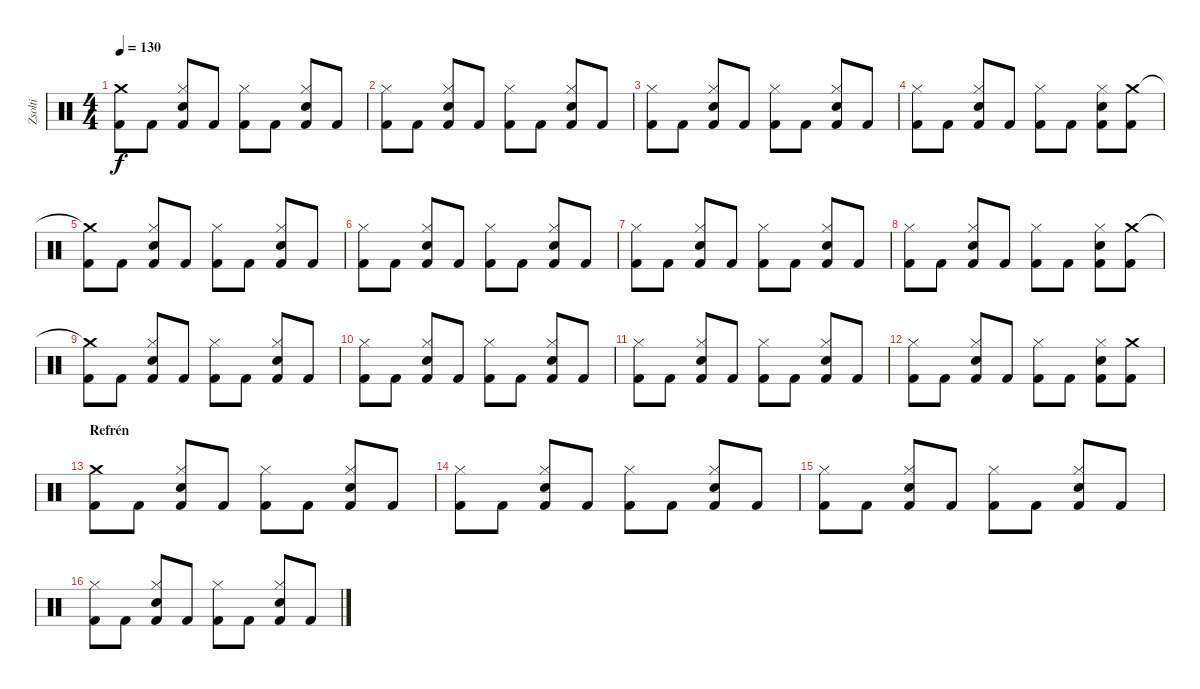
\track ("Zsolti" "Zsolti") {instrument percussion}
\staff {score}
\articulation defaults
\ts (4 4)
\tempo 130
\clef neutral
\ks c
("Crash medium (hit)"{t} "Kick (hit) 2").8{dy f} "Kick (hit) 2".8 ("Hi-Hat (closed)" "Snare (hit) 2" "Kick (hit) 2").8 "Kick (hit) 2".8 ("Hi-Hat (closed)" "Kick (hit) 2").8 "Kick (hit) 2".8 ("Hi-Hat (closed)" "Snare (hit) 2" "Kick (hit) 2").8 "Kick (hit) 2".8 |
("Hi-Hat (closed)" "Kick (hit) 2").8 "Kick (hit) 2".8 ("Hi-Hat (closed)" "Snare (hit) 2" "Kick (hit) 2").8 "Kick (hit) 2".8 ("Hi-Hat (closed)" "Kick (hit) 2").8 "Kick (hit) 2".8 ("Hi-Hat (closed)" "Snare (hit) 2" "Kick (hit) 2").8 "Kick (hit) 2".8 |
("Hi-Hat (closed)" "Kick (hit) 2").8 "Kick (hit) 2".8 ("Hi-Hat (closed)" "Snare (hit) 2" "Kick (hit) 2").8 "Kick (hit) 2".8 ("Hi-Hat (closed)" "Kick (hit) 2").8 "Kick (hit) 2".8 ("Hi-Hat (closed)" "Snare (hit) 2" "Kick (hit) 2").8 "Kick (hit) 2".8 |
("Hi-Hat (closed)" "Kick (hit) 2").8 "Kick (hit) 2".8 ("Hi-Hat (closed)" "Snare (hit) 2" "Kick (hit) 2").8 "Kick (hit) 2".8 ("Hi-Hat (closed)" "Kick (hit) 2").8 "Kick (hit) 2".8 ("Hi-Hat (closed)" "Snare (hit) 2" "Kick (hit) 2").8 ("Crash medium (hit)" "Kick (hit) 2").8 |
("Crash medium (hit)"{t} "Kick (hit) 2").8 "Kick (hit) 2".8 ("Hi-Hat (closed)" "Snare (hit) 2" "Kick (hit) 2").8 "Kick (hit) 2".8 ("Hi-Hat (closed)" "Kick (hit) 2").8 "Kick (hit) 2".8 ("Hi-Hat (closed)" "Snare (hit) 2" "Kick (hit) 2").8 "Kick (hit) 2".8 |
("Hi-Hat (closed)" "Kick (hit) 2").8 "Kick (hit) 2".8 ("Hi-Hat (closed)" "Snare (hit) 2" "Kick (hit) 2").8 "Kick (hit) 2".8 ("Hi-Hat (closed)" "Kick (hit) 2").8 "Kick (hit) 2".8 ("Hi-Hat (closed)" "Snare (hit) 2" "Kick (hit) 2").8 "Kick (hit) 2".8 |
("Hi-Hat (closed)" "Kick (hit) 2").8 "Kick (hit) 2".8 ("Hi-Hat (closed)" "Snare (hit) 2" "Kick (hit) 2").8 "Kick (hit) 2".8 ("Hi-Hat (closed)" "Kick (hit) 2").8 "Kick (hit) 2".8 ("Hi-Hat (closed)" "Snare (hit) 2" "Kick (hit) 2").8 "Kick (hit) 2".8 |
("Hi-Hat (closed)" "Kick (hit) 2").8 "Kick (hit) 2".8 ("Hi-Hat (closed)" "Snare (hit) 2" "Kick (hit) 2").8 "Kick (hit) 2".8 ("Hi-Hat (closed)" "Kick (hit) 2").8 "Kick (hit) 2".8 ("Hi-Hat (closed)" "Snare (hit) 2" "Kick (hit) 2").8 ("Crash medium (hit)" "Kick (hit) 2").8 |
("Crash medium (hit)"{t} "Kick (hit) 2").8 "Kick (hit) 2".8 ("Hi-Hat (closed)" "Snare (hit) 2" "Kick (hit) 2").8 "Kick (hit) 2".8 ("Hi-Hat (closed)" "Kick (hit) 2").8 "Kick (hit) 2".8 ("Hi-Hat (closed)" "Snare (hit) 2" "Kick (hit) 2").8 "Kick (hit) 2".8 |
("Hi-Hat (closed)" "Kick (hit) 2").8 "Kick (hit) 2".8 ("Hi-Hat (closed)" "Snare (hit) 2" "Kick (hit) 2").8 "Kick (hit) 2".8 ("Hi-Hat (closed)" "Kick (hit) 2").8 "Kick (hit) 2".8 ("Hi-Hat (closed)" "Snare (hit) 2" "Kick (hit) 2").8 "Kick (hit) 2".8 |
("Hi-Hat (closed)" "Kick (hit) 2").8 "Kick (hit) 2".8 ("Hi-Hat (closed)" "Snare (hit) 2" "Kick (hit) 2").8 "Kick (hit) 2".8 ("Hi-Hat (closed)" "Kick (hit) 2").8 "Kick (hit) 2".8 ("Hi-Hat (closed)" "Snare (hit) 2" "Kick (hit) 2").8 "Kick (hit) 2".8 |
("Hi-Hat (closed)" "Kick (hit) 2").8 "Kick (hit) 2".8 ("Hi-Hat (closed)" "Snare (hit) 2" "Kick (hit) 2").8 "Kick (hit) 2".8 ("Hi-Hat (closed)" "Kick (hit) 2").8 "Kick (hit) 2".8 ("Hi-Hat (closed)" "Snare (hit) 2" "Kick (hit) 2").8 ("Crash medium (hit)" "Kick (hit) 2").8 |
\section ("" "Refrén")
("Crash medium (hit)" "Kick (hit) 2").8 "Kick (hit) 2".8 ("Hi-Hat (closed)" "Snare (hit) 2" "Kick (hit) 2").8 "Kick (hit) 2".8 ("Hi-Hat (closed)" "Kick (hit) 2").8 "Kick (hit) 2".8 ("Hi-Hat (closed)" "Snare (hit) 2" "Kick (hit) 2").8 "Kick (hit) 2".8 |
("Hi-Hat (closed)" "Kick (hit) 2").8 "Kick (hit) 2".8 ("Hi-Hat (closed)" "Snare (hit) 2" "Kick (hit) 2").8 "Kick (hit) 2".8 ("Hi-Hat (closed)" "Kick (hit) 2").8 "Kick (hit) 2".8 ("Hi-Hat (closed)" "Snare (hit) 2" "Kick (hit) 2").8 "Kick (hit) 2".8 |
("Hi-Hat (closed)" "Kick (hit) 2").8 "Kick (hit) 2".8 ("Hi-Hat (closed)" "Snare (hit) 2" "Kick (hit) 2").8 "Kick (hit) 2".8 ("Hi-Hat (closed)" "Kick (hit) 2").8 "Kick (hit) 2".8 ("Hi-Hat (closed)" "Snare (hit) 2" "Kick (hit) 2").8 "Kick (hit) 2".8 |
("Hi-Hat (closed)" "Kick (hit) 2").8 "Kick (hit) 2".8 ("Hi-Hat (closed)" "Snare (hit) 2" "Kick (hit) 2").8 "Kick (hit) 2".8 ("Hi-Hat (closed)" "Kick (hit) 2").8 "Kick (hit) 2".8 ("Hi-Hat (closed)" "Snare (hit) 2" "Kick (hit) 2").8 "Kick (hit) 2".8
